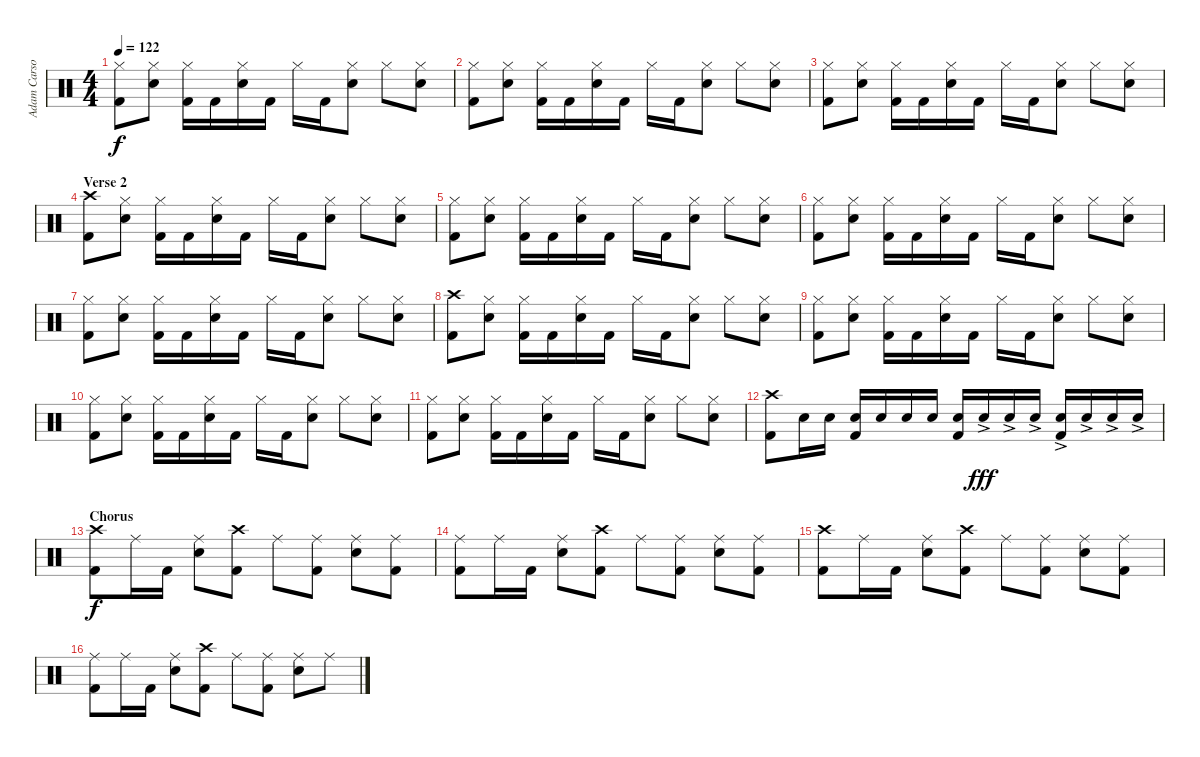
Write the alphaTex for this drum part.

\track ("Adam Carson" "Adam Carso") {instrument percussion}
\staff {score}
\articulation defaults
\ts (4 4)
\tempo 122
\clef neutral
\ks c
("Hi-Hat (closed)" "Kick (hit) 2").8{dy f} ("Hi-Hat (closed)" "Electric Snare (hit)").8 ("Hi-Hat (closed)" "Kick (hit) 2").16 "Kick (hit) 2".16 ("Hi-Hat (closed)" "Electric Snare (hit)").16 "Kick (hit) 2".16 "Hi-Hat (closed)".16 "Kick (hit) 2".16 ("Hi-Hat (closed)" "Electric Snare (hit)").8 "Hi-Hat (closed)".8 ("Hi-Hat (closed)" "Electric Snare (hit)").8 |
("Hi-Hat (closed)" "Kick (hit) 2").8 ("Hi-Hat (closed)" "Electric Snare (hit)").8 ("Hi-Hat (closed)" "Kick (hit) 2").16 "Kick (hit) 2".16 ("Hi-Hat (closed)" "Electric Snare (hit)").16 "Kick (hit) 2".16 "Hi-Hat (closed)".16 "Kick (hit) 2".16 ("Hi-Hat (closed)" "Electric Snare (hit)").8 "Hi-Hat (closed)".8 ("Hi-Hat (closed)" "Electric Snare (hit)").8 |
("Hi-Hat (closed)" "Kick (hit) 2").8 ("Hi-Hat (closed)" "Electric Snare (hit)").8 ("Hi-Hat (closed)" "Kick (hit) 2").16 "Kick (hit) 2".16 ("Hi-Hat (closed)" "Electric Snare (hit)").16 "Kick (hit) 2".16 "Hi-Hat (closed)".16 "Kick (hit) 2".16 ("Hi-Hat (closed)" "Electric Snare (hit)").8 "Hi-Hat (closed)".8 ("Hi-Hat (closed)" "Electric Snare (hit)").8 |
\section ("" "Verse 2")
("Crash high (hit)" "Kick (hit) 2").8 ("Hi-Hat (closed)" "Electric Snare (hit)").8 ("Hi-Hat (closed)" "Kick (hit) 2").16 "Kick (hit) 2".16 ("Hi-Hat (closed)" "Electric Snare (hit)").16 "Kick (hit) 2".16 "Hi-Hat (closed)".16 "Kick (hit) 2".16 ("Hi-Hat (closed)" "Electric Snare (hit)").8 "Hi-Hat (closed)".8 ("Hi-Hat (closed)" "Electric Snare (hit)").8 |
("Hi-Hat (closed)" "Kick (hit) 2").8 ("Hi-Hat (closed)" "Electric Snare (hit)").8 ("Hi-Hat (closed)" "Kick (hit) 2").16 "Kick (hit) 2".16 ("Hi-Hat (closed)" "Electric Snare (hit)").16 "Kick (hit) 2".16 "Hi-Hat (closed)".16 "Kick (hit) 2".16 ("Hi-Hat (closed)" "Electric Snare (hit)").8 "Hi-Hat (closed)".8 ("Hi-Hat (closed)" "Electric Snare (hit)").8 |
("Hi-Hat (closed)" "Kick (hit) 2").8 ("Hi-Hat (closed)" "Electric Snare (hit)").8 ("Hi-Hat (closed)" "Kick (hit) 2").16 "Kick (hit) 2".16 ("Hi-Hat (closed)" "Electric Snare (hit)").16 "Kick (hit) 2".16 "Hi-Hat (closed)".16 "Kick (hit) 2".16 ("Hi-Hat (closed)" "Electric Snare (hit)").8 "Hi-Hat (closed)".8 ("Hi-Hat (closed)" "Electric Snare (hit)").8 |
("Hi-Hat (closed)" "Kick (hit) 2").8 ("Hi-Hat (closed)" "Electric Snare (hit)").8 ("Hi-Hat (closed)" "Kick (hit) 2").16 "Kick (hit) 2".16 ("Hi-Hat (closed)" "Electric Snare (hit)").16 "Kick (hit) 2".16 "Hi-Hat (closed)".16 "Kick (hit) 2".16 ("Hi-Hat (closed)" "Electric Snare (hit)").8 "Hi-Hat (closed)".8 ("Hi-Hat (closed)" "Electric Snare (hit)").8 |
("Crash high (hit)" "Kick (hit) 2").8 ("Hi-Hat (closed)" "Electric Snare (hit)").8 ("Hi-Hat (closed)" "Kick (hit) 2").16 "Kick (hit) 2".16 ("Hi-Hat (closed)" "Electric Snare (hit)").16 "Kick (hit) 2".16 "Hi-Hat (closed)".16 "Kick (hit) 2".16 ("Hi-Hat (closed)" "Electric Snare (hit)").8 "Hi-Hat (closed)".8 ("Hi-Hat (closed)" "Electric Snare (hit)").8 |
("Hi-Hat (closed)" "Kick (hit) 2").8 ("Hi-Hat (closed)" "Electric Snare (hit)").8 ("Hi-Hat (closed)" "Kick (hit) 2").16 "Kick (hit) 2".16 ("Hi-Hat (closed)" "Electric Snare (hit)").16 "Kick (hit) 2".16 "Hi-Hat (closed)".16 "Kick (hit) 2".16 ("Hi-Hat (closed)" "Electric Snare (hit)").8 "Hi-Hat (closed)".8 ("Hi-Hat (closed)" "Electric Snare (hit)").8 |
("Hi-Hat (closed)" "Kick (hit) 2").8 ("Hi-Hat (closed)" "Electric Snare (hit)").8 ("Hi-Hat (closed)" "Kick (hit) 2").16 "Kick (hit) 2".16 ("Hi-Hat (closed)" "Electric Snare (hit)").16 "Kick (hit) 2".16 "Hi-Hat (closed)".16 "Kick (hit) 2".16 ("Hi-Hat (closed)" "Electric Snare (hit)").8 "Hi-Hat (closed)".8 ("Hi-Hat (closed)" "Electric Snare (hit)").8 |
("Hi-Hat (closed)" "Kick (hit) 2").8 ("Hi-Hat (closed)" "Electric Snare (hit)").8 ("Hi-Hat (closed)" "Kick (hit) 2").16 "Kick (hit) 2".16 ("Hi-Hat (closed)" "Electric Snare (hit)").16 "Kick (hit) 2".16 "Hi-Hat (closed)".16 "Kick (hit) 2".16 ("Hi-Hat (closed)" "Electric Snare (hit)").8 "Hi-Hat (closed)".8 ("Hi-Hat (closed)" "Electric Snare (hit)").8 |
("Crash high (hit)" "Kick (hit) 2").8 "Electric Snare (hit)".16 "Electric Snare (hit)".16 ("Electric Snare (hit)" "Kick (hit) 2").16 "Electric Snare (hit)".16 "Electric Snare (hit)".16 "Electric Snare (hit)".16 ("Electric Snare (hit)" "Kick (hit) 2").16 "Electric Snare (hit)"{ac}.16{dy fff} "Electric Snare (hit)"{ac}.16 "Electric Snare (hit)"{ac}.16 ("Electric Snare (hit)"{ac} "Kick (hit) 2").16 "Electric Snare (hit)"{ac}.16 "Electric Snare (hit)"{ac}.16 "Electric Snare (hit)"{ac}.16 |
\section ("" "Chorus")
("Crash high (hit)" "Kick (hit) 2").8{dy f} "Ride (middle)".16 "Kick (hit) 2".16 ("Ride (middle)" "Electric Snare (hit)").8 ("Crash high (hit)" "Kick (hit) 2").8 "Ride (middle)".8 ("Ride (middle)" "Kick (hit) 2").8 ("Ride (middle)" "Electric Snare (hit)").8 ("Ride (middle)" "Kick (hit) 2").8 |
("Ride (middle)" "Kick (hit) 2").8 "Ride (middle)".16 "Kick (hit) 2".16 ("Ride (middle)" "Electric Snare (hit)").8 ("Crash high (hit)" "Kick (hit) 2").8 "Ride (middle)".8 ("Ride (middle)" "Kick (hit) 2").8 ("Ride (middle)" "Electric Snare (hit)").8 ("Ride (middle)" "Kick (hit) 2").8 |
("Crash high (hit)" "Kick (hit) 2").8 "Ride (middle)".16 "Kick (hit) 2".16 ("Ride (middle)" "Electric Snare (hit)").8 ("Crash high (hit)" "Kick (hit) 2").8 "Ride (middle)".8 ("Ride (middle)" "Kick (hit) 2").8 ("Ride (middle)" "Electric Snare (hit)").8 ("Ride (middle)" "Kick (hit) 2").8 |
("Ride (middle)" "Kick (hit) 2").8 "Ride (middle)".16 "Kick (hit) 2".16 ("Ride (middle)" "Electric Snare (hit)").8 ("Crash high (hit)" "Kick (hit) 2").8 "Ride (middle)".8 ("Ride (middle)" "Kick (hit) 2").8 ("Ride (middle)" "Electric Snare (hit)").8 "Ride (middle)".8
